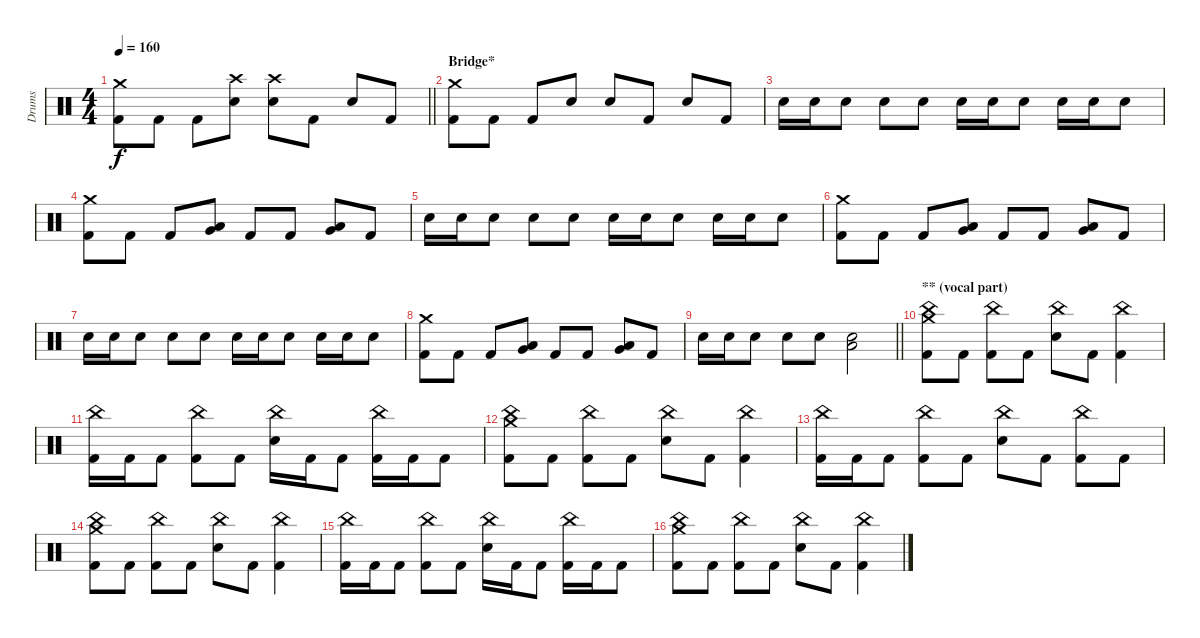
\track ("Drums" "Drums") {instrument percussion}
\staff {score}
\articulation defaults
\ts (4 4)
\tempo 160
\clef neutral
\barLineRight lightlight
\ks c
("Crash medium (hit)" "Kick (hit) 2").8{dy f} "Kick (hit) 2".8 "Kick (hit) 2".8 ("Crash high (hit)" "Electric Snare (hit)").8 ("Crash high (hit)" "Electric Snare (hit)").8 "Kick (hit) 2".8 "Electric Snare (hit)".8 "Kick (hit) 2".8 |
\section ("" "Bridge*")
("Crash medium (hit)" "Kick (hit) 2").8 "Kick (hit) 2".8 "Kick (hit) 2".8 "Electric Snare (hit)".8 "Electric Snare (hit)".8 "Kick (hit) 2".8 "Electric Snare (hit)".8 "Kick (hit) 2".8 |
"Electric Snare (hit)".16 "Electric Snare (hit)".16 "Electric Snare (hit)".8 "Electric Snare (hit)".8 "Electric Snare (hit)".8 "Electric Snare (hit)".16 "Electric Snare (hit)".16 "Electric Snare (hit)".8 "Electric Snare (hit)".16 "Electric Snare (hit)".16 "Electric Snare (hit)".8 |
("Crash medium (hit)" "Kick (hit) 2").8 "Kick (hit) 2".8 "Kick (hit) 2".8 ("Low Tom (hit)" "Very Low Tom (hit)").8 "Kick (hit) 2".8 "Kick (hit) 2".8 ("Very Low Tom (hit)" "Low Floor Tom (hit)").8 "Kick (hit) 2".8 |
"Electric Snare (hit)".16 "Electric Snare (hit)".16 "Electric Snare (hit)".8 "Electric Snare (hit)".8 "Electric Snare (hit)".8 "Electric Snare (hit)".16 "Electric Snare (hit)".16 "Electric Snare (hit)".8 "Electric Snare (hit)".16 "Electric Snare (hit)".16 "Electric Snare (hit)".8 |
("Crash medium (hit)" "Kick (hit) 2").8 "Kick (hit) 2".8 "Kick (hit) 2".8 ("Low Tom (hit)" "Very Low Tom (hit)").8 "Kick (hit) 2".8 "Kick (hit) 2".8 ("Very Low Tom (hit)" "Low Floor Tom (hit)").8 "Kick (hit) 2".8 |
"Electric Snare (hit)".16 "Electric Snare (hit)".16 "Electric Snare (hit)".8 "Electric Snare (hit)".8 "Electric Snare (hit)".8 "Electric Snare (hit)".16 "Electric Snare (hit)".16 "Electric Snare (hit)".8 "Electric Snare (hit)".16 "Electric Snare (hit)".16 "Electric Snare (hit)".8 |
("Crash medium (hit)" "Kick (hit) 2").8 "Kick (hit) 2".8 "Kick (hit) 2".8 ("Low Tom (hit)" "Very Low Tom (hit)").8 "Kick (hit) 2".8 "Kick (hit) 2".8 ("Very Low Tom (hit)" "Low Floor Tom (hit)").8 "Kick (hit) 2".8 |
\barLineRight lightlight "Electric Snare (hit)".16 "Electric Snare (hit)".16 "Electric Snare (hit)".8 "Electric Snare (hit)".8 "Electric Snare (hit)".8
("Low Floor Tom (hit)" "Electric Snare (hit)").2 |
\section ("" "** (vocal part)")
("China (hit)" "Crash medium (hit)" "Kick (hit) 2").8 "Kick (hit) 2".8 ("China (hit)" "Kick (hit) 2").8 "Kick (hit) 2".8 ("China (hit)" "Electric Snare (hit)").8 "Kick (hit) 2".8 ("China (hit)" "Kick (hit) 2").4 |
("China (hit)" "Kick (hit) 2").16 "Kick (hit) 2".16 "Kick (hit) 2".8 ("China (hit)" "Kick (hit) 2").8 "Kick (hit) 2".8 ("China (hit)" "Electric Snare (hit)").16 "Kick (hit) 2".16 "Kick (hit) 2".8 ("China (hit)" "Kick (hit) 2").16 "Kick (hit) 2".16 "Kick (hit) 2".8 |
("China (hit)" "Crash medium (hit)" "Kick (hit) 2").8 "Kick (hit) 2".8 ("China (hit)" "Kick (hit) 2").8 "Kick (hit) 2".8 ("China (hit)" "Electric Snare (hit)").8 "Kick (hit) 2".8 ("China (hit)" "Kick (hit) 2").4 |
("China (hit)" "Kick (hit) 2").16 "Kick (hit) 2".16 "Kick (hit) 2".8 ("China (hit)" "Kick (hit) 2").8 "Kick (hit) 2".8 ("China (hit)" "Electric Snare (hit)").8 "Kick (hit) 2".8 ("China (hit)" "Kick (hit) 2").8 "Kick (hit) 2".8 |
("China (hit)" "Crash medium (hit)" "Kick (hit) 2").8 "Kick (hit) 2".8 ("China (hit)" "Kick (hit) 2").8 "Kick (hit) 2".8 ("China (hit)" "Electric Snare (hit)").8 "Kick (hit) 2".8 ("China (hit)" "Kick (hit) 2").4 |
("China (hit)" "Kick (hit) 2").16 "Kick (hit) 2".16 "Kick (hit) 2".8 ("China (hit)" "Kick (hit) 2").8 "Kick (hit) 2".8 ("China (hit)" "Electric Snare (hit)").16 "Kick (hit) 2".16 "Kick (hit) 2".8 ("China (hit)" "Kick (hit) 2").16 "Kick (hit) 2".16 "Kick (hit) 2".8 |
("China (hit)" "Crash medium (hit)" "Kick (hit) 2").8 "Kick (hit) 2".8 ("China (hit)" "Kick (hit) 2").8 "Kick (hit) 2".8 ("China (hit)" "Electric Snare (hit)").8 "Kick (hit) 2".8 ("China (hit)" "Kick (hit) 2").4
